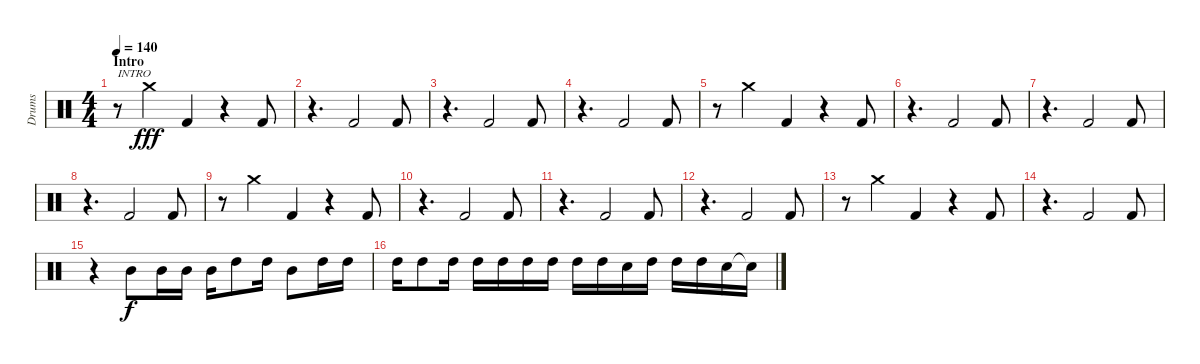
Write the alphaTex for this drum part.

\track ("Drums" "Drums") {instrument percussion}
\staff {score}
\articulation defaults
\ts (4 4)
\section ("" "Intro")
\tempo 140
\clef neutral
\ks c
r.8{txt "INTRO " dy fff} "Crash medium (hit)".4 "Kick (hit) 2".4 r.4 "Kick (hit) 2".8 |
r.4{d} "Kick (hit) 2".2 "Kick (hit) 2".8 |
r.4{d} "Kick (hit) 2".2 "Kick (hit) 2".8 |
r.4{d} "Kick (hit) 2".2 "Kick (hit) 2".8 |
r.8 "Crash medium (hit)".4 "Kick (hit) 2".4 r.4 "Kick (hit) 2".8 |
r.4{d} "Kick (hit) 2".2 "Kick (hit) 2".8 |
r.4{d} "Kick (hit) 2".2 "Kick (hit) 2".8 |
r.4{d} "Kick (hit) 2".2 "Kick (hit) 2".8 |
r.8 "Crash medium (hit)".4 "Kick (hit) 2".4 r.4 "Kick (hit) 2".8 |
r.4{d} "Kick (hit) 2".2 "Kick (hit) 2".8 |
r.4{d} "Kick (hit) 2".2 "Kick (hit) 2".8 |
r.4{d} "Kick (hit) 2".2 "Kick (hit) 2".8 |
r.8 "Crash medium (hit)".4 "Kick (hit) 2".4 r.4 "Kick (hit) 2".8 |
r.4{d} "Kick (hit) 2".2 "Kick (hit) 2".8 |
r.4 "Mid Tom (hit)".8{dy f} "Mid Tom (hit)".16 "Mid Tom (hit)".16 "Mid Tom (hit)".16 "High Tom (hit)".8 "High Tom (hit)".16 "Mid Tom (hit)".8 "High Tom (hit)".16 "High Tom (hit)".16 |
"High Tom (hit)".16 "High Tom (hit)".8 "High Tom (hit)".16 "High Tom (hit)".16 "High Tom (hit)".16 "High Tom (hit)".16 "High Tom (hit)".16 "High Tom (hit)".16 "High Tom (hit)".16 "Snare (hit) 2".16 "High Tom (hit)".16 "High Tom (hit)".16 "High Tom (hit)".16 "Snare (hit) 2".16 "Snare (hit) 2"{t}.16
